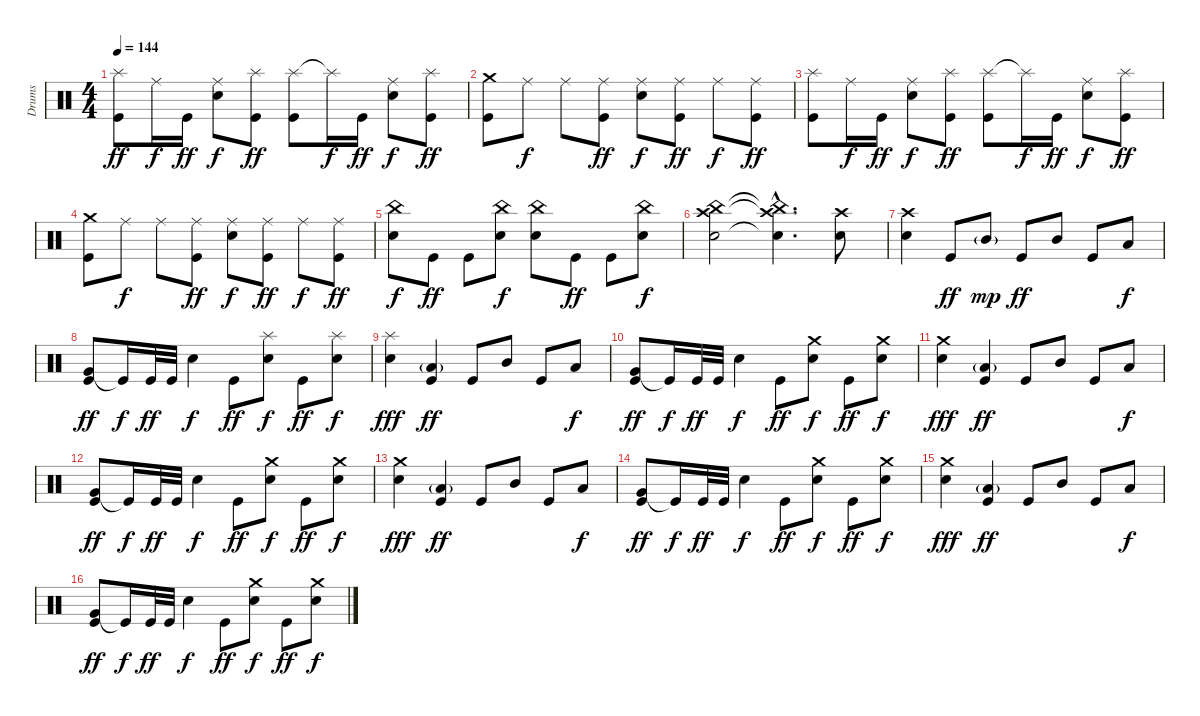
\track ("Drums" "Drums") {instrument percussion}
\staff {score}
\articulation defaults
\ts (4 4)
\tempo 144
\clef neutral
\ks c
("Splash (hit)" "Kick (hit)").8{dy ff} "Ride (middle)".16{dy f} "Kick (hit)".16{dy ff} ("Ride (middle)" "Snare (hit) 2").8{dy f} ("Splash (hit)" "Kick (hit)").8{dy ff} ("Splash (hit)" "Kick (hit)").8 "Splash (hit)"{t}.16{dy f} "Kick (hit)".16{dy ff} ("Ride (middle)" "Snare (hit) 2").8{dy f} ("Splash (hit)" "Kick (hit)").8{dy ff} |
("Crash medium (hit)" "Kick (hit)").8 "Ride (middle)".8{dy f} "Ride (middle)".8 ("Ride (middle)" "Kick (hit)").8{dy ff} ("Ride (middle)" "Snare (hit) 2").8{dy f} ("Ride (middle)" "Kick (hit)").8{dy ff} "Ride (middle)".8{dy f} ("Ride (middle)" "Kick (hit)").8{dy ff} |
("Splash (hit)" "Kick (hit)").8 "Ride (middle)".16{dy f} "Kick (hit)".16{dy ff} ("Ride (middle)" "Snare (hit) 2").8{dy f} ("Splash (hit)" "Kick (hit)").8{dy ff} ("Splash (hit)" "Kick (hit)").8 "Splash (hit)"{t}.16{dy f} "Kick (hit)".16{dy ff} ("Ride (middle)" "Snare (hit) 2").8{dy f} ("Splash (hit)" "Kick (hit)").8{dy ff} |
("Crash medium (hit)" "Kick (hit)").8 "Ride (middle)".8{dy f} "Ride (middle)".8 ("Ride (middle)" "Kick (hit)").8{dy ff} ("Ride (middle)" "Snare (hit) 2").8{dy f} ("Ride (middle)" "Kick (hit)").8{dy ff} "Ride (middle)".8{dy f} ("Ride (middle)" "Kick (hit)").8{dy ff} |
("China (hit)" "Snare (hit) 2").8{dy f} "Kick (hit)".8{dy ff} "Kick (hit)".8 ("China (hit)" "Snare (hit) 2").8{dy f} ("China (hit)" "Snare (hit) 2").8 "Kick (hit)".8{dy ff} "Kick (hit)".8 ("China (hit)" "Snare (hit) 2").8{dy f} |
("China (hit)" "Crash high (hit)" "Snare (hit) 2").2 ("China (hit)"{hac t} "Crash high (hit)"{hac t} "Snare (hit) 2"{hac t}).4{d} ("Crash high (hit)" "Snare (hit) 2").8 |
("Crash high (hit)" "Snare (hit) 2").4 "Kick (hit)".8{dy ff} "Mid Tom (hit)"{g}.8{dy mp} "Kick (hit)".8{dy ff} "Mid Tom (hit)".8 "Kick (hit)".8 "Low Tom (hit)".8{dy f} |
("Very Low Tom (hit)" "Kick (hit)").8{dy ff} "Kick (hit)"{t}.16{dy f} "Kick (hit)".32{dy ff} "Kick (hit)".32 "Snare (hit) 2".4{dy f} "Kick (hit)".8{dy ff} ("Splash (hit)" "Snare (hit) 2").8{dy f} "Kick (hit)".8{dy ff} ("Splash (hit)" "Snare (hit) 2").8{dy f} |
("Splash (hit)" "Snare (hit) 2").4{dy fff} ("Low Floor Tom (hit)"{g} "Kick (hit)").4{dy ff} "Kick (hit)".8 "Mid Tom (hit)".8 "Kick (hit)".8 "Low Tom (hit)".8{dy f} |
("Very Low Tom (hit)" "Kick (hit)").8{dy ff} "Kick (hit)"{t}.16{dy f} "Kick (hit)".32{dy ff} "Kick (hit)".32 "Snare (hit) 2".4{dy f} "Kick (hit)".8{dy ff} ("Crash medium (hit)" "Snare (hit) 2").8{dy f} "Kick (hit)".8{dy ff} ("Crash medium (hit)" "Snare (hit) 2").8{dy f} |
("Crash medium (hit)" "Snare (hit) 2").4{dy fff} ("Low Floor Tom (hit)"{g} "Kick (hit)").4{dy ff} "Kick (hit)".8 "Mid Tom (hit)".8 "Kick (hit)".8 "Low Tom (hit)".8{dy f} |
("Very Low Tom (hit)" "Kick (hit)").8{dy ff} "Kick (hit)"{t}.16{dy f} "Kick (hit)".32{dy ff} "Kick (hit)".32 "Snare (hit) 2".4{dy f} "Kick (hit)".8{dy ff} ("Crash medium (hit)" "Snare (hit) 2").8{dy f} "Kick (hit)".8{dy ff} ("Crash medium (hit)" "Snare (hit) 2").8{dy f} |
("Crash medium (hit)" "Snare (hit) 2").4{dy fff} ("Low Floor Tom (hit)"{g} "Kick (hit)").4{dy ff} "Kick (hit)".8 "Mid Tom (hit)".8 "Kick (hit)".8 "Low Tom (hit)".8{dy f} |
("Very Low Tom (hit)" "Kick (hit)").8{dy ff} "Kick (hit)"{t}.16{dy f} "Kick (hit)".32{dy ff} "Kick (hit)".32 "Snare (hit) 2".4{dy f} "Kick (hit)".8{dy ff} ("Crash medium (hit)" "Snare (hit) 2").8{dy f} "Kick (hit)".8{dy ff} ("Crash medium (hit)" "Snare (hit) 2").8{dy f} |
("Crash medium (hit)" "Snare (hit) 2").4{dy fff} ("Low Floor Tom (hit)"{g} "Kick (hit)").4{dy ff} "Kick (hit)".8 "Mid Tom (hit)".8 "Kick (hit)".8 "Low Tom (hit)".8{dy f} |
("Very Low Tom (hit)" "Kick (hit)").8{dy ff} "Kick (hit)"{t}.16{dy f} "Kick (hit)".32{dy ff} "Kick (hit)".32 "Snare (hit) 2".4{dy f} "Kick (hit)".8{dy ff} ("Crash medium (hit)" "Snare (hit) 2").8{dy f} "Kick (hit)".8{dy ff} ("Crash medium (hit)" "Snare (hit) 2").8{dy f}
